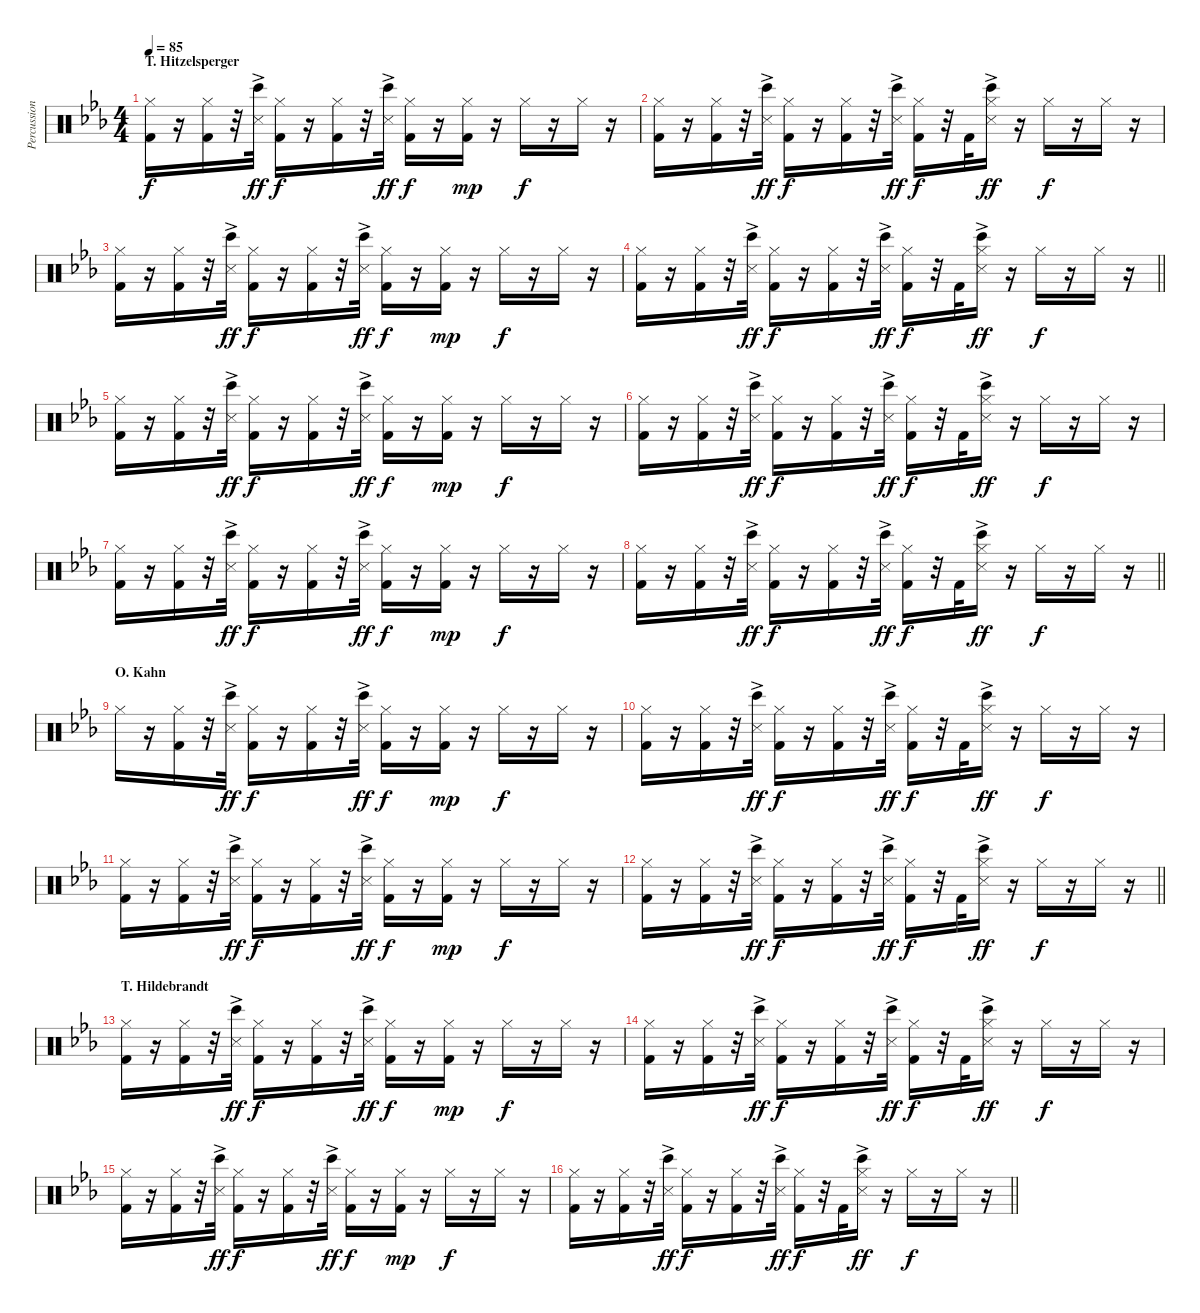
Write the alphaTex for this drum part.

\track ("Percussion" "Percussion") {instrument percussion}
\staff {score}
\articulation defaults
\ts (4 4)
\section ("" "T. Hitzelsperger")
\tempo 85
\clef neutral
\ks cminor
("Hi-Hat (closed)" "Kick (hit) 2").16{dy f} r.16 ("Hi-Hat (closed)" "Kick (hit) 2").16 r.32 ("Bongo High (hit)" "Metronome (hit)"{ac}).32{dy ff} ("Hi-Hat (closed)" "Kick (hit) 2").16{dy f} r.16 ("Hi-Hat (closed)" "Kick (hit) 2").16 r.32 ("Bongo High (hit)" "Metronome (hit)"{ac}).32{dy ff} ("Hi-Hat (closed)" "Kick (hit) 2").16{dy f} r.16 ("Hi-Hat (closed)" "Kick (hit) 2").16{dy mp} r.16 "Hi-Hat (closed)".16{dy f} r.16 "Hi-Hat (closed)".16 r.16 |
("Hi-Hat (closed)" "Kick (hit) 2").16 r.16 ("Hi-Hat (closed)" "Kick (hit) 2").16 r.32 ("Bongo High (hit)" "Metronome (hit)"{ac}).32{dy ff} ("Hi-Hat (closed)" "Kick (hit) 2").16{dy f} r.16 ("Hi-Hat (closed)" "Kick (hit) 2").16 r.32 ("Bongo High (hit)" "Metronome (hit)"{ac}).32{dy ff} ("Hi-Hat (closed)" "Kick (hit) 2").16{dy f} r.32 "Kick (hit) 2".32 ("Hi-Hat (closed)" "Bongo High (hit)" "Metronome (hit)"{ac}).16{dy ff} r.16 "Hi-Hat (closed)".16{dy f} r.16 "Hi-Hat (closed)".16 r.16 |
("Hi-Hat (closed)" "Kick (hit) 2").16 r.16 ("Hi-Hat (closed)" "Kick (hit) 2").16 r.32 ("Bongo High (hit)" "Metronome (hit)"{ac}).32{dy ff} ("Hi-Hat (closed)" "Kick (hit) 2").16{dy f} r.16 ("Hi-Hat (closed)" "Kick (hit) 2").16 r.32 ("Bongo High (hit)" "Metronome (hit)"{ac}).32{dy ff} ("Hi-Hat (closed)" "Kick (hit) 2").16{dy f} r.16 ("Hi-Hat (closed)" "Kick (hit) 2").16{dy mp} r.16 "Hi-Hat (closed)".16{dy f} r.16 "Hi-Hat (closed)".16 r.16 |
\barLineRight lightlight
("Hi-Hat (closed)" "Kick (hit) 2").16 r.16 ("Hi-Hat (closed)" "Kick (hit) 2").16 r.32 ("Bongo High (hit)" "Metronome (hit)"{ac}).32{dy ff} ("Hi-Hat (closed)" "Kick (hit) 2").16{dy f} r.16 ("Hi-Hat (closed)" "Kick (hit) 2").16 r.32 ("Bongo High (hit)" "Metronome (hit)"{ac}).32{dy ff} ("Hi-Hat (closed)" "Kick (hit) 2").16{dy f} r.32 "Kick (hit) 2".32 ("Hi-Hat (closed)" "Bongo High (hit)" "Metronome (hit)"{ac}).16{dy ff} r.16 "Hi-Hat (closed)".16{dy f} r.16 "Hi-Hat (closed)".16 r.16 |
("Hi-Hat (closed)" "Kick (hit) 2").16 r.16 ("Hi-Hat (closed)" "Kick (hit) 2").16 r.32 ("Bongo High (hit)" "Metronome (hit)"{ac}).32{dy ff} ("Hi-Hat (closed)" "Kick (hit) 2").16{dy f} r.16 ("Hi-Hat (closed)" "Kick (hit) 2").16 r.32 ("Bongo High (hit)" "Metronome (hit)"{ac}).32{dy ff} ("Hi-Hat (closed)" "Kick (hit) 2").16{dy f} r.16 ("Hi-Hat (closed)" "Kick (hit) 2").16{dy mp} r.16 "Hi-Hat (closed)".16{dy f} r.16 "Hi-Hat (closed)".16 r.16 |
("Hi-Hat (closed)" "Kick (hit) 2").16 r.16 ("Hi-Hat (closed)" "Kick (hit) 2").16 r.32 ("Bongo High (hit)" "Metronome (hit)"{ac}).32{dy ff} ("Hi-Hat (closed)" "Kick (hit) 2").16{dy f} r.16 ("Hi-Hat (closed)" "Kick (hit) 2").16 r.32 ("Bongo High (hit)" "Metronome (hit)"{ac}).32{dy ff} ("Hi-Hat (closed)" "Kick (hit) 2").16{dy f} r.32 "Kick (hit) 2".32 ("Hi-Hat (closed)" "Bongo High (hit)" "Metronome (hit)"{ac}).16{dy ff} r.16 "Hi-Hat (closed)".16{dy f} r.16 "Hi-Hat (closed)".16 r.16 |
("Hi-Hat (closed)" "Kick (hit) 2").16 r.16 ("Hi-Hat (closed)" "Kick (hit) 2").16 r.32 ("Bongo High (hit)" "Metronome (hit)"{ac}).32{dy ff} ("Hi-Hat (closed)" "Kick (hit) 2").16{dy f} r.16 ("Hi-Hat (closed)" "Kick (hit) 2").16 r.32 ("Bongo High (hit)" "Metronome (hit)"{ac}).32{dy ff} ("Hi-Hat (closed)" "Kick (hit) 2").16{dy f} r.16 ("Hi-Hat (closed)" "Kick (hit) 2").16{dy mp} r.16 "Hi-Hat (closed)".16{dy f} r.16 "Hi-Hat (closed)".16 r.16 |
\barLineRight lightlight
("Hi-Hat (closed)" "Kick (hit) 2").16 r.16 ("Hi-Hat (closed)" "Kick (hit) 2").16 r.32 ("Bongo High (hit)" "Metronome (hit)"{ac}).32{dy ff} ("Hi-Hat (closed)" "Kick (hit) 2").16{dy f} r.16 ("Hi-Hat (closed)" "Kick (hit) 2").16 r.32 ("Bongo High (hit)" "Metronome (hit)"{ac}).32{dy ff} ("Hi-Hat (closed)" "Kick (hit) 2").16{dy f} r.32 "Kick (hit) 2".32 ("Hi-Hat (closed)" "Bongo High (hit)" "Metronome (hit)"{ac}).16{dy ff} r.16 "Hi-Hat (closed)".16{dy f} r.16 "Hi-Hat (closed)".16 r.16 |
\section ("" "O. Kahn")
"Hi-Hat (closed)".16 r.16 ("Hi-Hat (closed)" "Kick (hit) 2").16 r.32 ("Bongo High (hit)" "Metronome (hit)"{ac}).32{dy ff} ("Hi-Hat (closed)" "Kick (hit) 2").16{dy f} r.16 ("Hi-Hat (closed)" "Kick (hit) 2").16 r.32 ("Bongo High (hit)" "Metronome (hit)"{ac}).32{dy ff} ("Hi-Hat (closed)" "Kick (hit) 2").16{dy f} r.16 ("Hi-Hat (closed)" "Kick (hit) 2").16{dy mp} r.16 "Hi-Hat (closed)".16{dy f} r.16 "Hi-Hat (closed)".16 r.16 |
("Hi-Hat (closed)" "Kick (hit) 2").16 r.16 ("Hi-Hat (closed)" "Kick (hit) 2").16 r.32 ("Bongo High (hit)" "Metronome (hit)"{ac}).32{dy ff} ("Hi-Hat (closed)" "Kick (hit) 2").16{dy f} r.16 ("Hi-Hat (closed)" "Kick (hit) 2").16 r.32 ("Bongo High (hit)" "Metronome (hit)"{ac}).32{dy ff} ("Hi-Hat (closed)" "Kick (hit) 2").16{dy f} r.32 "Kick (hit) 2".32 ("Hi-Hat (closed)" "Bongo High (hit)" "Metronome (hit)"{ac}).16{dy ff} r.16 "Hi-Hat (closed)".16{dy f} r.16 "Hi-Hat (closed)".16 r.16 |
("Hi-Hat (closed)" "Kick (hit) 2").16 r.16 ("Hi-Hat (closed)" "Kick (hit) 2").16 r.32 ("Bongo High (hit)" "Metronome (hit)"{ac}).32{dy ff} ("Hi-Hat (closed)" "Kick (hit) 2").16{dy f} r.16 ("Hi-Hat (closed)" "Kick (hit) 2").16 r.32 ("Bongo High (hit)" "Metronome (hit)"{ac}).32{dy ff} ("Hi-Hat (closed)" "Kick (hit) 2").16{dy f} r.16 ("Hi-Hat (closed)" "Kick (hit) 2").16{dy mp} r.16 "Hi-Hat (closed)".16{dy f} r.16 "Hi-Hat (closed)".16 r.16 |
\barLineRight lightlight
("Hi-Hat (closed)" "Kick (hit) 2").16 r.16 ("Hi-Hat (closed)" "Kick (hit) 2").16 r.32 ("Bongo High (hit)" "Metronome (hit)"{ac}).32{dy ff} ("Hi-Hat (closed)" "Kick (hit) 2").16{dy f} r.16 ("Hi-Hat (closed)" "Kick (hit) 2").16 r.32 ("Bongo High (hit)" "Metronome (hit)"{ac}).32{dy ff} ("Hi-Hat (closed)" "Kick (hit) 2").16{dy f} r.32 "Kick (hit) 2".32 ("Hi-Hat (closed)" "Bongo High (hit)" "Metronome (hit)"{ac}).16{dy ff} r.16 "Hi-Hat (closed)".16{dy f} r.16 "Hi-Hat (closed)".16 r.16 |
\section ("" "T. Hildebrandt")
("Hi-Hat (closed)" "Kick (hit) 2").16 r.16 ("Hi-Hat (closed)" "Kick (hit) 2").16 r.32 ("Bongo High (hit)" "Metronome (hit)"{ac}).32{dy ff} ("Hi-Hat (closed)" "Kick (hit) 2").16{dy f} r.16 ("Hi-Hat (closed)" "Kick (hit) 2").16 r.32 ("Bongo High (hit)" "Metronome (hit)"{ac}).32{dy ff} ("Hi-Hat (closed)" "Kick (hit) 2").16{dy f} r.16 ("Hi-Hat (closed)" "Kick (hit) 2").16{dy mp} r.16 "Hi-Hat (closed)".16{dy f} r.16 "Hi-Hat (closed)".16 r.16 |
("Hi-Hat (closed)" "Kick (hit) 2").16 r.16 ("Hi-Hat (closed)" "Kick (hit) 2").16 r.32 ("Bongo High (hit)" "Metronome (hit)"{ac}).32{dy ff} ("Hi-Hat (closed)" "Kick (hit) 2").16{dy f} r.16 ("Hi-Hat (closed)" "Kick (hit) 2").16 r.32 ("Bongo High (hit)" "Metronome (hit)"{ac}).32{dy ff} ("Hi-Hat (closed)" "Kick (hit) 2").16{dy f} r.32 "Kick (hit) 2".32 ("Hi-Hat (closed)" "Bongo High (hit)" "Metronome (hit)"{ac}).16{dy ff} r.16 "Hi-Hat (closed)".16{dy f} r.16 "Hi-Hat (closed)".16 r.16 |
("Hi-Hat (closed)" "Kick (hit) 2").16 r.16 ("Hi-Hat (closed)" "Kick (hit) 2").16 r.32 ("Bongo High (hit)" "Metronome (hit)"{ac}).32{dy ff} ("Hi-Hat (closed)" "Kick (hit) 2").16{dy f} r.16 ("Hi-Hat (closed)" "Kick (hit) 2").16 r.32 ("Bongo High (hit)" "Metronome (hit)"{ac}).32{dy ff} ("Hi-Hat (closed)" "Kick (hit) 2").16{dy f} r.16 ("Hi-Hat (closed)" "Kick (hit) 2").16{dy mp} r.16 "Hi-Hat (closed)".16{dy f} r.16 "Hi-Hat (closed)".16 r.16 |
\barLineRight lightlight
("Hi-Hat (closed)" "Kick (hit) 2").16 r.16 ("Hi-Hat (closed)" "Kick (hit) 2").16 r.32 ("Bongo High (hit)" "Metronome (hit)"{ac}).32{dy ff} ("Hi-Hat (closed)" "Kick (hit) 2").16{dy f} r.16 ("Hi-Hat (closed)" "Kick (hit) 2").16 r.32 ("Bongo High (hit)" "Metronome (hit)"{ac}).32{dy ff} ("Hi-Hat (closed)" "Kick (hit) 2").16{dy f} r.32 "Kick (hit) 2".32 ("Hi-Hat (closed)" "Bongo High (hit)" "Metronome (hit)"{ac}).16{dy ff} r.16 "Hi-Hat (closed)".16{dy f} r.16 "Hi-Hat (closed)".16 r.16
